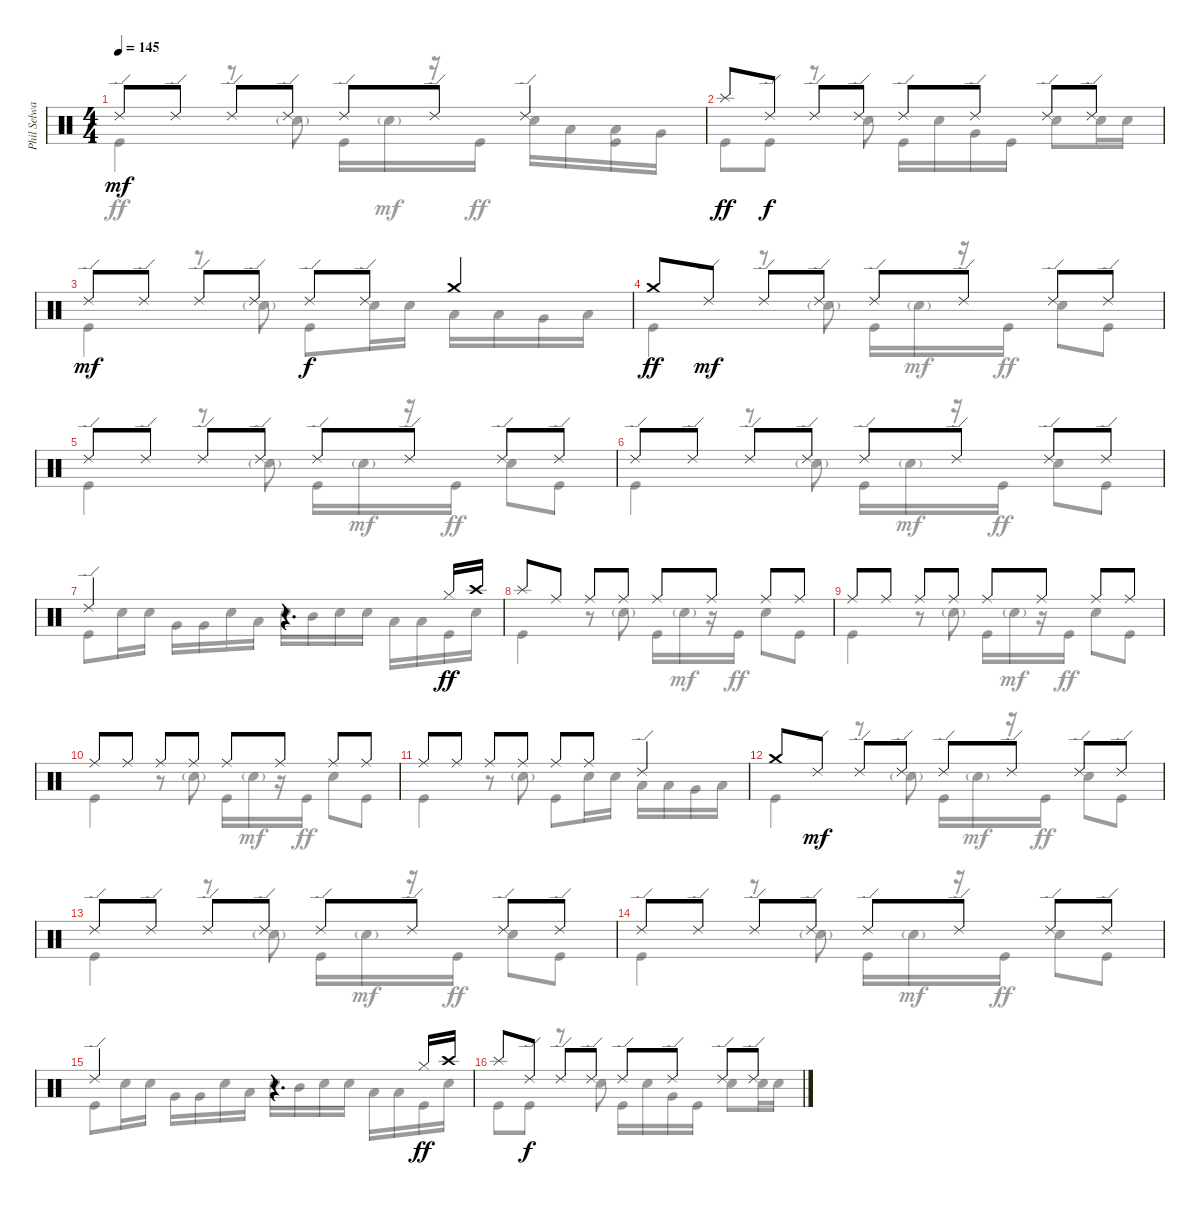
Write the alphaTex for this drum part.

\track ("Phil Selway" "Phil Selwa") {instrument percussion}
\staff {score}
\articulation defaults
\voice
\ts (4 4)
\tempo 145
\clef neutral
\ks c "Ride (edge) 2".8{dy mf} "Ride (edge) 2".8 "Ride (edge) 2".8 "Ride (edge) 2".8 "Ride (edge) 2".8 "Ride (edge) 2".8 "Ride (edge) 2".4
|
"Splash (hit)".8{dy ff} "Ride (edge) 2".8{dy f} "Ride (edge) 2".8 "Ride (edge) 2".8 "Ride (edge) 2".8 "Ride (edge) 2".8 "Ride (edge) 2".8 "Ride (edge) 2".8 |
"Ride (edge) 2".8{dy mf} "Ride (edge) 2".8 "Ride (edge) 2".8 "Ride (edge) 2".8 "Ride (edge) 2".8{dy f} "Ride (edge) 2".8 "Crash medium (hit)".4 |
"Crash medium (hit)".8{dy ff} "Ride (edge) 2".8{dy mf} "Ride (edge) 2".8 "Ride (edge) 2".8 "Ride (edge) 2".8 "Ride (edge) 2".8 "Ride (edge) 2".8 "Ride (edge) 2".8 |
"Ride (edge) 2".8 "Ride (edge) 2".8 "Ride (edge) 2".8 "Ride (edge) 2".8 "Ride (edge) 2".8 "Ride (edge) 2".8 "Ride (edge) 2".8 "Ride (edge) 2".8 |
"Ride (edge) 2".8 "Ride (edge) 2".8 "Ride (edge) 2".8 "Ride (edge) 2".8 "Ride (edge) 2".8 "Ride (edge) 2".8 "Ride (edge) 2".8 "Ride (edge) 2".8 |
"Ride (edge) 2".2 r.4{d} "Hi-Hat (closed)".16{dy ff} "Crash high (hit)".16 |
"Splash (hit)".8 "Ride (middle)".8 "Ride (middle)".8 "Ride (middle)".8 "Ride (middle)".8 "Ride (middle)".8 "Ride (middle)".8 "Ride (middle)".8 |
"Ride (middle)".8 "Ride (middle)".8 "Ride (middle)".8 "Ride (middle)".8 "Ride (middle)".8 "Ride (middle)".8 "Ride (middle)".8 "Ride (middle)".8 |
"Ride (middle)".8 "Ride (middle)".8 "Ride (middle)".8 "Ride (middle)".8 "Ride (middle)".8 "Ride (middle)".8 "Ride (middle)".8 "Ride (middle)".8 |
"Ride (middle)".8 "Ride (middle)".8 "Ride (middle)".8 "Ride (middle)".8 "Ride (middle)".8 "Ride (middle)".8 "Ride (edge) 2".4 |
"Crash medium (hit)".8 "Ride (edge) 2".8{dy mf} "Ride (edge) 2".8 "Ride (edge) 2".8 "Ride (edge) 2".8 "Ride (edge) 2".8 "Ride (edge) 2".8 "Ride (edge) 2".8 |
"Ride (edge) 2".8 "Ride (edge) 2".8 "Ride (edge) 2".8 "Ride (edge) 2".8 "Ride (edge) 2".8 "Ride (edge) 2".8 "Ride (edge) 2".8 "Ride (edge) 2".8 |
"Ride (edge) 2".8 "Ride (edge) 2".8 "Ride (edge) 2".8 "Ride (edge) 2".8 "Ride (edge) 2".8 "Ride (edge) 2".8 "Ride (edge) 2".8 "Ride (edge) 2".8 |
"Ride (edge) 2".2 r.4{d} "Hi-Hat (closed)".16{dy ff} "Crash high (hit)".16 |
"Splash (hit)".8 "Ride (edge) 2".8{dy f} "Ride (edge) 2".8 "Ride (edge) 2".8 "Ride (edge) 2".8 "Ride (edge) 2".8 "Ride (edge) 2".8 "Ride (edge) 2".8
\voice
\clef neutral
\ottava regular
\simile none
\ks c "Kick (hit)".4{dy ff}
r.8 "Snare (hit) 2"{g}.8 "Kick (hit)".16 "Snare (hit) 2"{g}.16{dy mf} r.16 "Kick (hit)".16{dy ff} "Snare (hit) 2".16 "Low Tom (hit)".16 ("Low Tom (hit)" "Kick (hit)").16 "Very Low Tom (hit)".16 |
"Kick (hit)".8 "Kick (hit)".8 r.8 "Snare (hit) 2".8 "Kick (hit)".16 "Snare (hit) 2".16 "Very Low Tom (hit)".16 "Kick (hit)".16 "Snare (hit) 2".8 "Snare (hit) 2".16 "Snare (hit) 2".16 |
"Kick (hit)".4 r.8 "Snare (hit) 2"{g}.8 "Kick (hit)".8 "Snare (hit) 2".16 "Snare (hit) 2".16 "Low Tom (hit)".16 "Low Tom (hit)".16 "Very Low Tom (hit)".16 "Low Floor Tom (hit)".16 |
"Kick (hit)".4 r.8 "Snare (hit) 2"{g}.8 "Kick (hit)".16 "Snare (hit) 2"{g}.16{dy mf} r.16 "Kick (hit)".16{dy ff} "Snare (hit) 2".8 "Kick (hit)".8 |
"Kick (hit)".4 r.8 "Snare (hit) 2"{g}.8 "Kick (hit)".16 "Snare (hit) 2"{g}.16{dy mf} r.16 "Kick (hit)".16{dy ff} "Snare (hit) 2".8 "Kick (hit)".8 |
"Kick (hit)".4 r.8 "Snare (hit) 2"{g}.8 "Kick (hit)".16 "Snare (hit) 2"{g}.16{dy mf} r.16 "Kick (hit)".16{dy ff} "Snare (hit) 2".8 "Kick (hit)".8 |
"Kick (hit)".8 "Snare (hit) 2".16 "Snare (hit) 2".16 "Very Low Tom (hit)".16 "Very Low Tom (hit)".16 "Snare (hit) 2".16 "Low Tom (hit)".16 "Snare (hit) 2".16 "Mid Tom (hit)".16 "Snare (hit) 2".16 "Snare (hit) 2".16 "Low Tom (hit)".16 "Low Tom (hit)".16 "Kick (hit)".16 "Snare (hit) 2".16 |
"Kick (hit)".4 r.8 "Snare (hit) 2"{g}.8 "Kick (hit)".16 "Snare (hit) 2"{g}.16{dy mf} r.16 "Kick (hit)".16{dy ff} "Snare (hit) 2".8 "Kick (hit)".8 |
"Kick (hit)".4 r.8 "Snare (hit) 2"{g}.8 "Kick (hit)".16 "Snare (hit) 2"{g}.16{dy mf} r.16 "Kick (hit)".16{dy ff} "Snare (hit) 2".8 "Kick (hit)".8 |
"Kick (hit)".4 r.8 "Snare (hit) 2"{g}.8 "Kick (hit)".16 "Snare (hit) 2"{g}.16{dy mf} r.16 "Kick (hit)".16{dy ff} "Snare (hit) 2".8 "Kick (hit)".8 |
"Kick (hit)".4 r.8 "Snare (hit) 2"{g}.8 "Kick (hit)".8 "Snare (hit) 2".16 "Snare (hit) 2".16 "Low Tom (hit)".16 "Low Tom (hit)".16 "Very Low Tom (hit)".16 "Low Floor Tom (hit)".16 |
"Kick (hit)".4 r.8 "Snare (hit) 2"{g}.8 "Kick (hit)".16 "Snare (hit) 2"{g}.16{dy mf} r.16 "Kick (hit)".16{dy ff} "Snare (hit) 2".8 "Kick (hit)".8 |
"Kick (hit)".4 r.8 "Snare (hit) 2"{g}.8 "Kick (hit)".16 "Snare (hit) 2"{g}.16{dy mf} r.16 "Kick (hit)".16{dy ff} "Snare (hit) 2".8 "Kick (hit)".8 |
"Kick (hit)".4 r.8 "Snare (hit) 2"{g}.8 "Kick (hit)".16 "Snare (hit) 2"{g}.16{dy mf} r.16 "Kick (hit)".16{dy ff} "Snare (hit) 2".8 "Kick (hit)".8 |
"Kick (hit)".8 "Snare (hit) 2".16 "Snare (hit) 2".16 "Very Low Tom (hit)".16 "Very Low Tom (hit)".16 "Snare (hit) 2".16 "Low Tom (hit)".16 "Snare (hit) 2".16 "Mid Tom (hit)".16 "Snare (hit) 2".16 "Snare (hit) 2".16 "Low Tom (hit)".16 "Low Tom (hit)".16 "Kick (hit)".16 "Snare (hit) 2".16 |
"Kick (hit)".8 "Kick (hit)".8 r.8 "Snare (hit) 2".8 "Kick (hit)".16 "Snare (hit) 2".16 "Very Low Tom (hit)".16 "Kick (hit)".16 "Snare (hit) 2".8 "Snare (hit) 2".16 "Snare (hit) 2".16
